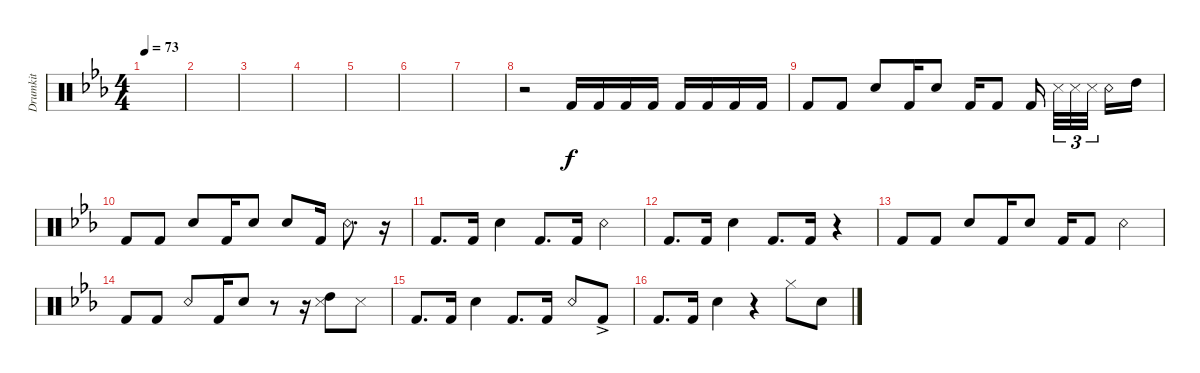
\track ("Drumkit" "Drumkit") {instrument percussion}
\staff {score}
\articulation defaults
\ts (4 4)
\tempo 73
\clef neutral
\ks cminor
|
|
|
|
|
|
|
r.2 "Kick (hit) 2".16 "Kick (hit) 2".16 "Kick (hit) 2".16 "Kick (hit) 2".16 "Kick (hit) 2".16 "Kick (hit) 2".16 "Kick (hit) 2".16 "Kick (hit) 2".16 |
"Kick (hit) 2".8 "Kick (hit) 2".8 "Snare (hit) 2".8 "Kick (hit) 2".16 "Snare (hit) 2".8 "Kick (hit) 2".16 "Kick (hit) 2".8 "Kick (hit) 2".16 "Snare (side stick) 3".32{tu (3 2)} "Snare (side stick) 3".32{tu (3 2)} "Snare (side stick) 3".32{tu (3 2)} "Snare (rim shot)".16 "High Tom (hit)".16 |
"Kick (hit) 2".8 "Kick (hit) 2".8 "Snare (hit) 2".8 "Kick (hit) 2".16 "Snare (hit) 2".8 "Snare (hit) 2".8 "Kick (hit) 2".16 "Snare (rim shot)".8{d} r.16 |
"Kick (hit) 2".8{d} "Kick (hit) 2".16 "Snare (hit) 2".4 "Kick (hit) 2".8{d} "Kick (hit) 2".16 "Snare (rim shot)".4 |
"Kick (hit) 2".8{d} "Kick (hit) 2".16 "Snare (hit) 2".4 "Kick (hit) 2".8{d} "Kick (hit) 2".16 r.4 |
"Kick (hit) 2".8 "Kick (hit) 2".8 "Snare (hit) 2".8 "Kick (hit) 2".16 "Snare (hit) 2".8 "Kick (hit) 2".16 "Kick (hit) 2".8 "Snare (rim shot)".4 |
"Kick (hit) 2".8 "Kick (hit) 2".8 "Snare (rim shot)".8 "Kick (hit) 2".16 "Snare (hit) 2".8 r.8 r.16 ("High Tom (hit)" "Snare (side stick) 3").8 "Snare (side stick) 3".8 |
"Kick (hit) 2".8{d} "Kick (hit) 2".16 "Snare (hit) 2".4 "Kick (hit) 2".8{d} "Kick (hit) 2".16 "Snare (rim shot)".8 "Kick (hit) 2"{ac}.8 |
"Kick (hit) 2".8{d} "Kick (hit) 2".16 "Snare (hit) 2".4 r.4 "Hi-Hat (closed)".8 "Snare (hit) 2".8
